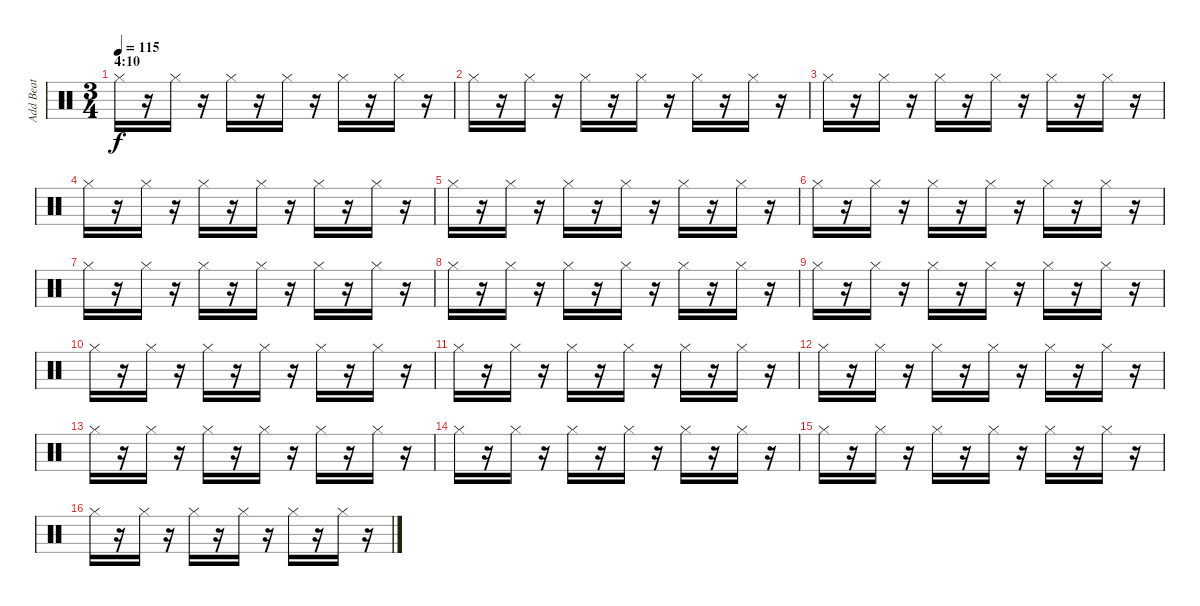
\track ("Add Beat" "Add Beat") {instrument percussion}
\staff {score}
\articulation defaults
\ts (3 4)
\section ("" "4:10")
\tempo 115
\clef neutral
\ks c "Hi-Hat (closed)".16{dy f}
r.16 "Hi-Hat (closed)".16 r.16 "Hi-Hat (closed)".16 r.16 "Hi-Hat (closed)".16 r.16 "Hi-Hat (closed)".16 r.16 "Hi-Hat (closed)".16 r.16 |
"Hi-Hat (closed)".16 r.16 "Hi-Hat (closed)".16 r.16 "Hi-Hat (closed)".16 r.16 "Hi-Hat (closed)".16 r.16 "Hi-Hat (closed)".16 r.16 "Hi-Hat (closed)".16 r.16 |
"Hi-Hat (closed)".16 r.16 "Hi-Hat (closed)".16 r.16 "Hi-Hat (closed)".16 r.16 "Hi-Hat (closed)".16 r.16 "Hi-Hat (closed)".16 r.16 "Hi-Hat (closed)".16 r.16 |
"Hi-Hat (closed)".16 r.16 "Hi-Hat (closed)".16 r.16 "Hi-Hat (closed)".16 r.16 "Hi-Hat (closed)".16 r.16 "Hi-Hat (closed)".16 r.16 "Hi-Hat (closed)".16 r.16 |
"Hi-Hat (closed)".16 r.16 "Hi-Hat (closed)".16 r.16 "Hi-Hat (closed)".16 r.16 "Hi-Hat (closed)".16 r.16 "Hi-Hat (closed)".16 r.16 "Hi-Hat (closed)".16 r.16 |
"Hi-Hat (closed)".16 r.16 "Hi-Hat (closed)".16 r.16 "Hi-Hat (closed)".16 r.16 "Hi-Hat (closed)".16 r.16 "Hi-Hat (closed)".16 r.16 "Hi-Hat (closed)".16 r.16 |
"Hi-Hat (closed)".16 r.16 "Hi-Hat (closed)".16 r.16 "Hi-Hat (closed)".16 r.16 "Hi-Hat (closed)".16 r.16 "Hi-Hat (closed)".16 r.16 "Hi-Hat (closed)".16 r.16 |
"Hi-Hat (closed)".16 r.16 "Hi-Hat (closed)".16 r.16 "Hi-Hat (closed)".16 r.16 "Hi-Hat (closed)".16 r.16 "Hi-Hat (closed)".16 r.16 "Hi-Hat (closed)".16 r.16 |
"Hi-Hat (closed)".16 r.16 "Hi-Hat (closed)".16 r.16 "Hi-Hat (closed)".16 r.16 "Hi-Hat (closed)".16 r.16 "Hi-Hat (closed)".16 r.16 "Hi-Hat (closed)".16 r.16 |
"Hi-Hat (closed)".16 r.16 "Hi-Hat (closed)".16 r.16 "Hi-Hat (closed)".16 r.16 "Hi-Hat (closed)".16 r.16 "Hi-Hat (closed)".16 r.16 "Hi-Hat (closed)".16 r.16 |
"Hi-Hat (closed)".16 r.16 "Hi-Hat (closed)".16 r.16 "Hi-Hat (closed)".16 r.16 "Hi-Hat (closed)".16 r.16 "Hi-Hat (closed)".16 r.16 "Hi-Hat (closed)".16 r.16 |
"Hi-Hat (closed)".16 r.16 "Hi-Hat (closed)".16 r.16 "Hi-Hat (closed)".16 r.16 "Hi-Hat (closed)".16 r.16 "Hi-Hat (closed)".16 r.16 "Hi-Hat (closed)".16 r.16 |
"Hi-Hat (closed)".16 r.16 "Hi-Hat (closed)".16 r.16 "Hi-Hat (closed)".16 r.16 "Hi-Hat (closed)".16 r.16 "Hi-Hat (closed)".16 r.16 "Hi-Hat (closed)".16 r.16 |
"Hi-Hat (closed)".16 r.16 "Hi-Hat (closed)".16 r.16 "Hi-Hat (closed)".16 r.16 "Hi-Hat (closed)".16 r.16 "Hi-Hat (closed)".16 r.16 "Hi-Hat (closed)".16 r.16 |
"Hi-Hat (closed)".16 r.16 "Hi-Hat (closed)".16 r.16 "Hi-Hat (closed)".16 r.16 "Hi-Hat (closed)".16 r.16 "Hi-Hat (closed)".16 r.16 "Hi-Hat (closed)".16 r.16 |
"Hi-Hat (closed)".16 r.16 "Hi-Hat (closed)".16 r.16 "Hi-Hat (closed)".16 r.16 "Hi-Hat (closed)".16 r.16 "Hi-Hat (closed)".16 r.16 "Hi-Hat (closed)".16 r.16
